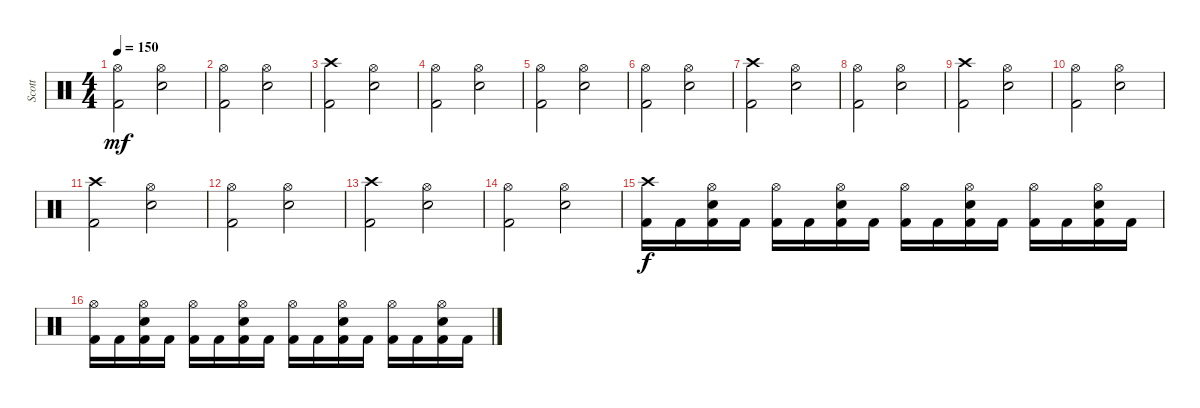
\track ("Scott" "Scott") {instrument percussion}
\staff {score}
\articulation defaults
\ts (4 4)
\tempo 150
\clef neutral
\ks c
("Hi-Hat (open)" "Kick (hit) 2").2{dy mf} ("Hi-Hat (open)" "Snare (hit) 2").2 |
("Hi-Hat (open)" "Kick (hit) 2").2 ("Hi-Hat (open)" "Snare (hit) 2").2 |
("Crash high (hit)" "Kick (hit) 2").2 ("Hi-Hat (open)" "Snare (hit) 2").2 |
("Hi-Hat (open)" "Kick (hit) 2").2 ("Hi-Hat (open)" "Snare (hit) 2").2 |
("Hi-Hat (open)" "Kick (hit) 2").2 ("Hi-Hat (open)" "Snare (hit) 2").2 |
("Hi-Hat (open)" "Kick (hit) 2").2 ("Hi-Hat (open)" "Snare (hit) 2").2 |
("Crash high (hit)" "Kick (hit) 2").2 ("Hi-Hat (open)" "Snare (hit) 2").2 |
("Hi-Hat (open)" "Kick (hit) 2").2 ("Hi-Hat (open)" "Snare (hit) 2").2 |
("Crash high (hit)" "Kick (hit) 2").2 ("Hi-Hat (open)" "Snare (hit) 2").2 |
("Hi-Hat (open)" "Kick (hit) 2").2 ("Hi-Hat (open)" "Snare (hit) 2").2 |
("Crash high (hit)" "Kick (hit) 2").2 ("Hi-Hat (open)" "Snare (hit) 2").2 |
("Hi-Hat (open)" "Kick (hit) 2").2 ("Hi-Hat (open)" "Snare (hit) 2").2 |
("Crash high (hit)" "Kick (hit) 2").2 ("Hi-Hat (open)" "Snare (hit) 2").2 |
("Hi-Hat (open)" "Kick (hit) 2").2 ("Hi-Hat (open)" "Snare (hit) 2").2 |
("Crash high (hit)" "Kick (hit) 2").16{dy f} "Kick (hit) 2".16 ("Hi-Hat (open)" "Snare (hit) 2" "Kick (hit) 2").16 "Kick (hit) 2".16 ("Hi-Hat (open)" "Kick (hit) 2").16 "Kick (hit) 2".16 ("Hi-Hat (open)" "Snare (hit) 2" "Kick (hit) 2").16 "Kick (hit) 2".16 ("Hi-Hat (open)" "Kick (hit) 2").16 "Kick (hit) 2".16 ("Hi-Hat (open)" "Snare (hit) 2" "Kick (hit) 2").16 "Kick (hit) 2".16 ("Hi-Hat (open)" "Kick (hit) 2").16 "Kick (hit) 2".16 ("Hi-Hat (open)" "Snare (hit) 2" "Kick (hit) 2").16 "Kick (hit) 2".16 |
("Hi-Hat (open)" "Kick (hit) 2").16 "Kick (hit) 2".16 ("Hi-Hat (open)" "Snare (hit) 2" "Kick (hit) 2").16 "Kick (hit) 2".16 ("Hi-Hat (open)" "Kick (hit) 2").16 "Kick (hit) 2".16 ("Hi-Hat (open)" "Snare (hit) 2" "Kick (hit) 2").16 "Kick (hit) 2".16 ("Hi-Hat (open)" "Kick (hit) 2").16 "Kick (hit) 2".16 ("Hi-Hat (open)" "Snare (hit) 2" "Kick (hit) 2").16 "Kick (hit) 2".16 ("Hi-Hat (open)" "Kick (hit) 2").16 "Kick (hit) 2".16 ("Hi-Hat (open)" "Snare (hit) 2" "Kick (hit) 2").16 "Kick (hit) 2".16
